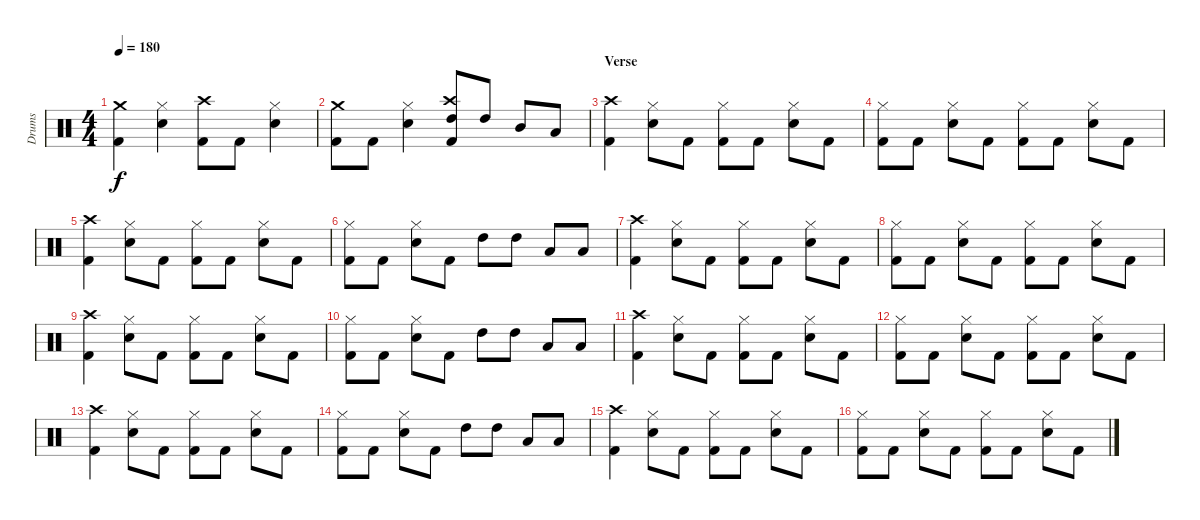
\track ("Drums" "Drums") {instrument percussion}
\staff {score}
\articulation defaults
\ts (4 4)
\tempo 180
\clef neutral
\ks c
("Crash medium (hit)" "Kick (hit) 2").4{dy f} ("Hi-Hat (closed)" "Electric Snare (hit)").4 ("Crash high (hit)" "Kick (hit) 2").8 "Kick (hit) 2".8 ("Hi-Hat (closed)" "Electric Snare (hit)").4 |
("Crash medium (hit)" "Kick (hit) 2").8 "Kick (hit) 2".8 ("Hi-Hat (closed)" "Electric Snare (hit)").4 ("Crash high (hit)" "High Tom (hit)" "Kick (hit) 2").8 "High Tom (hit)".8 "Mid Tom (hit)".8 "Low Tom (hit)".8 |
\section ("" "Verse")
("Crash high (hit)" "Kick (hit) 2").4 ("Hi-Hat (closed)" "Electric Snare (hit)").8 "Kick (hit) 2".8 ("Hi-Hat (closed)" "Kick (hit) 2").8 "Kick (hit) 2".8 ("Hi-Hat (closed)" "Electric Snare (hit)").8 "Kick (hit) 2".8 |
("Hi-Hat (closed)" "Kick (hit) 2").8 "Kick (hit) 2".8 ("Hi-Hat (closed)" "Electric Snare (hit)").8 "Kick (hit) 2".8 ("Hi-Hat (closed)" "Kick (hit) 2").8 "Kick (hit) 2".8 ("Hi-Hat (closed)" "Electric Snare (hit)").8 "Kick (hit) 2".8 |
("Crash high (hit)" "Kick (hit) 2").4 ("Hi-Hat (closed)" "Electric Snare (hit)").8 "Kick (hit) 2".8 ("Hi-Hat (closed)" "Kick (hit) 2").8 "Kick (hit) 2".8 ("Hi-Hat (closed)" "Electric Snare (hit)").8 "Kick (hit) 2".8 |
("Hi-Hat (closed)" "Kick (hit) 2").8 "Kick (hit) 2".8 ("Hi-Hat (closed)" "Electric Snare (hit)").8 "Kick (hit) 2".8 "High Tom (hit)".8 "High Tom (hit)".8 "Low Tom (hit)".8 "Low Tom (hit)".8 |
("Crash high (hit)" "Kick (hit) 2").4 ("Hi-Hat (closed)" "Electric Snare (hit)").8 "Kick (hit) 2".8 ("Hi-Hat (closed)" "Kick (hit) 2").8 "Kick (hit) 2".8 ("Hi-Hat (closed)" "Electric Snare (hit)").8 "Kick (hit) 2".8 |
("Hi-Hat (closed)" "Kick (hit) 2").8 "Kick (hit) 2".8 ("Hi-Hat (closed)" "Electric Snare (hit)").8 "Kick (hit) 2".8 ("Hi-Hat (closed)" "Kick (hit) 2").8 "Kick (hit) 2".8 ("Hi-Hat (closed)" "Electric Snare (hit)").8 "Kick (hit) 2".8 |
("Crash high (hit)" "Kick (hit) 2").4 ("Hi-Hat (closed)" "Electric Snare (hit)").8 "Kick (hit) 2".8 ("Hi-Hat (closed)" "Kick (hit) 2").8 "Kick (hit) 2".8 ("Hi-Hat (closed)" "Electric Snare (hit)").8 "Kick (hit) 2".8 |
("Hi-Hat (closed)" "Kick (hit) 2").8 "Kick (hit) 2".8 ("Hi-Hat (closed)" "Electric Snare (hit)").8 "Kick (hit) 2".8 "High Tom (hit)".8 "High Tom (hit)".8 "Low Tom (hit)".8 "Low Tom (hit)".8 |
("Crash high (hit)" "Kick (hit) 2").4 ("Hi-Hat (closed)" "Electric Snare (hit)").8 "Kick (hit) 2".8 ("Hi-Hat (closed)" "Kick (hit) 2").8 "Kick (hit) 2".8 ("Hi-Hat (closed)" "Electric Snare (hit)").8 "Kick (hit) 2".8 |
("Hi-Hat (closed)" "Kick (hit) 2").8 "Kick (hit) 2".8 ("Hi-Hat (closed)" "Electric Snare (hit)").8 "Kick (hit) 2".8 ("Hi-Hat (closed)" "Kick (hit) 2").8 "Kick (hit) 2".8 ("Hi-Hat (closed)" "Electric Snare (hit)").8 "Kick (hit) 2".8 |
("Crash high (hit)" "Kick (hit) 2").4 ("Hi-Hat (closed)" "Electric Snare (hit)").8 "Kick (hit) 2".8 ("Hi-Hat (closed)" "Kick (hit) 2").8 "Kick (hit) 2".8 ("Hi-Hat (closed)" "Electric Snare (hit)").8 "Kick (hit) 2".8 |
("Hi-Hat (closed)" "Kick (hit) 2").8 "Kick (hit) 2".8 ("Hi-Hat (closed)" "Electric Snare (hit)").8 "Kick (hit) 2".8 "High Tom (hit)".8 "High Tom (hit)".8 "Low Tom (hit)".8 "Low Tom (hit)".8 |
("Crash high (hit)" "Kick (hit) 2").4 ("Hi-Hat (closed)" "Electric Snare (hit)").8 "Kick (hit) 2".8 ("Hi-Hat (closed)" "Kick (hit) 2").8 "Kick (hit) 2".8 ("Hi-Hat (closed)" "Electric Snare (hit)").8 "Kick (hit) 2".8 |
("Hi-Hat (closed)" "Kick (hit) 2").8 "Kick (hit) 2".8 ("Hi-Hat (closed)" "Electric Snare (hit)").8 "Kick (hit) 2".8 ("Hi-Hat (closed)" "Kick (hit) 2").8 "Kick (hit) 2".8 ("Hi-Hat (closed)" "Electric Snare (hit)").8 "Kick (hit) 2".8
